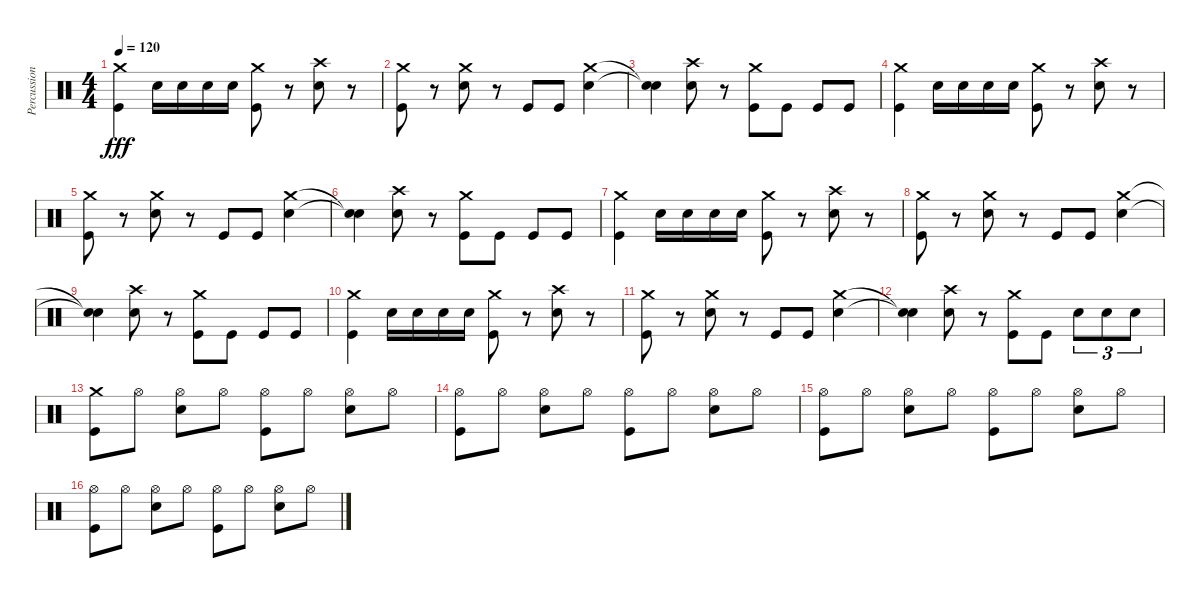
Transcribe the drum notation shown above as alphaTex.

\track ("Percussions" "Percussion") {instrument percussion}
\staff {score}
\articulation defaults
\ts (4 4)
\tempo 120
\tempo 142
\tempo 120
\clef neutral
\ks c
("Crash medium (hit)" "Kick (hit)").4{dy fff} "Snare (hit) 2".16 "Snare (hit) 2".16 "Snare (hit) 2".16 "Snare (hit) 2".16 ("Crash medium (hit)" "Kick (hit)").8 r.8 ("Crash high (hit)" "Snare (hit) 2").8 r.8 |
("Crash medium (hit)" "Kick (hit)").8 r.8 ("Crash medium (hit)" "Snare (hit) 2").8 r.8 "Kick (hit)".8 "Kick (hit)".8 ("Crash medium (hit)" "Snare (hit) 2").4 |
("Snare (hit)"{t} "Snare (hit)"{t}).4 ("Crash high (hit)" "Snare (hit) 2").8 r.8 ("Crash medium (hit)" "Kick (hit)").8 "Kick (hit)".8 "Kick (hit)".8 "Kick (hit)".8 |
("Crash medium (hit)" "Kick (hit)").4 "Snare (hit) 2".16 "Snare (hit) 2".16 "Snare (hit) 2".16 "Snare (hit) 2".16 ("Crash medium (hit)" "Kick (hit)").8 r.8 ("Crash high (hit)" "Snare (hit) 2").8 r.8 |
("Crash medium (hit)" "Kick (hit)").8 r.8 ("Crash medium (hit)" "Snare (hit) 2").8 r.8 "Kick (hit)".8 "Kick (hit)".8 ("Crash medium (hit)" "Snare (hit) 2").4 |
("Snare (hit)"{t} "Snare (hit)"{t}).4 ("Crash high (hit)" "Snare (hit) 2").8 r.8 ("Crash medium (hit)" "Kick (hit)").8 "Kick (hit)".8 "Kick (hit)".8 "Kick (hit)".8 |
("Crash medium (hit)" "Kick (hit)").4 "Snare (hit) 2".16 "Snare (hit) 2".16 "Snare (hit) 2".16 "Snare (hit) 2".16 ("Crash medium (hit)" "Kick (hit)").8 r.8 ("Crash high (hit)" "Snare (hit) 2").8 r.8 |
("Crash medium (hit)" "Kick (hit)").8 r.8 ("Crash medium (hit)" "Snare (hit) 2").8 r.8 "Kick (hit)".8 "Kick (hit)".8 ("Crash medium (hit)" "Snare (hit) 2").4 |
("Snare (hit)"{t} "Snare (hit)"{t}).4 ("Crash high (hit)" "Snare (hit) 2").8 r.8 ("Crash medium (hit)" "Kick (hit)").8 "Kick (hit)".8 "Kick (hit)".8 "Kick (hit)".8 |
("Crash medium (hit)" "Kick (hit)").4 "Snare (hit) 2".16 "Snare (hit) 2".16 "Snare (hit) 2".16 "Snare (hit) 2".16 ("Crash medium (hit)" "Kick (hit)").8 r.8 ("Crash high (hit)" "Snare (hit) 2").8 r.8 |
("Crash medium (hit)" "Kick (hit)").8 r.8 ("Crash medium (hit)" "Snare (hit) 2").8 r.8 "Kick (hit)".8 "Kick (hit)".8 ("Crash medium (hit)" "Snare (hit) 2").4 |
("Snare (hit)"{t} "Snare (hit)"{t}).4 ("Crash high (hit)" "Snare (hit) 2").8 r.8 ("Crash medium (hit)" "Kick (hit)").8 "Kick (hit)".8 "Snare (hit) 2".8{tu (3 2)} "Snare (hit) 2".8{tu (3 2)} "Snare (hit) 2".8{tu (3 2)} |
("Crash medium (hit)" "Kick (hit)").8 "Hi-Hat (open)".8 ("Hi-Hat (open)" "Snare (hit) 2").8 "Hi-Hat (open)".8 ("Hi-Hat (open)" "Kick (hit)").8 "Hi-Hat (open)".8 ("Hi-Hat (open)" "Snare (hit) 2").8 "Hi-Hat (open)".8 |
("Hi-Hat (open)" "Kick (hit)").8 "Hi-Hat (open)".8 ("Hi-Hat (open)" "Snare (hit) 2").8 "Hi-Hat (open)".8 ("Hi-Hat (open)" "Kick (hit)").8 "Hi-Hat (open)".8 ("Hi-Hat (open)" "Snare (hit) 2").8 "Hi-Hat (open)".8 |
("Hi-Hat (open)" "Kick (hit)").8 "Hi-Hat (open)".8 ("Hi-Hat (open)" "Snare (hit) 2").8 "Hi-Hat (open)".8 ("Hi-Hat (open)" "Kick (hit)").8 "Hi-Hat (open)".8 ("Hi-Hat (open)" "Snare (hit) 2").8 "Hi-Hat (open)".8 |
("Hi-Hat (open)" "Kick (hit)").8 "Hi-Hat (open)".8 ("Hi-Hat (open)" "Snare (hit) 2").8 "Hi-Hat (open)".8 ("Hi-Hat (open)" "Kick (hit)").8 "Hi-Hat (open)".8 ("Hi-Hat (open)" "Snare (hit) 2").8 "Hi-Hat (open)".8
